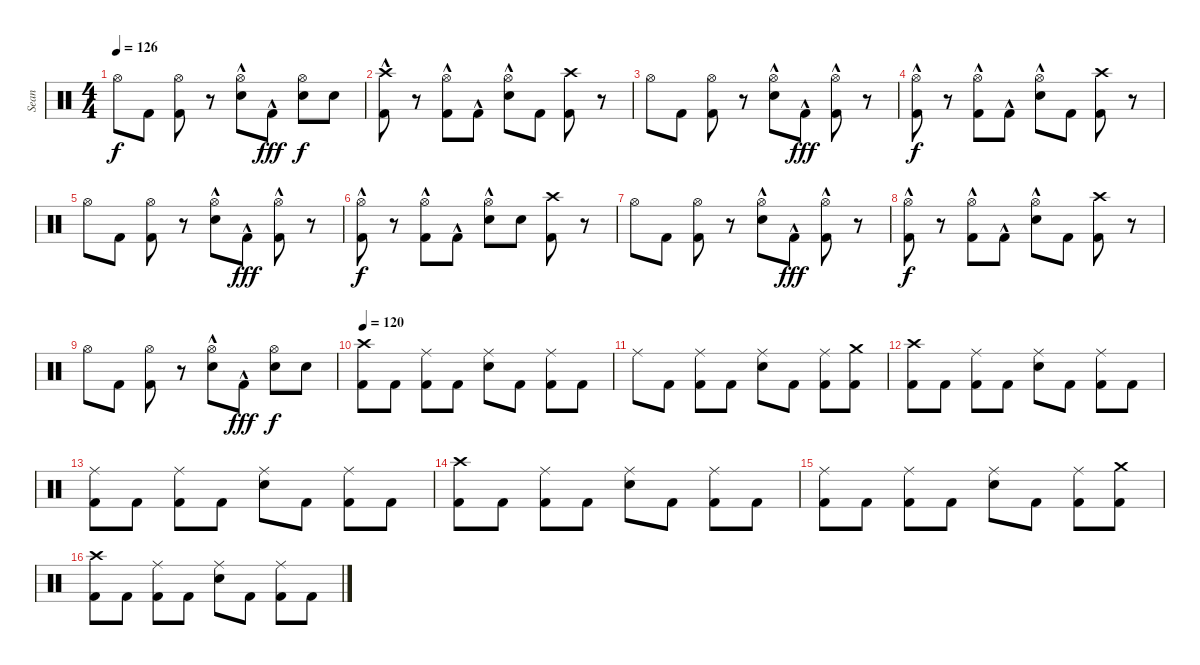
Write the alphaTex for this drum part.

\track ("Sean" "Sean") {instrument percussion}
\staff {score}
\articulation defaults
\ts (4 4)
\tempo 126
\clef neutral
\ks c "Hi-Hat (open)".8{dy f} "Kick (hit) 2".8
("Hi-Hat (open)" "Kick (hit) 2").8 r.8 ("Hi-Hat (open)" "Snare (hit) 2"{hac}).8 "Kick (hit) 2"{hac}.8{dy fff} ("Hi-Hat (open)" "Snare (hit) 2").8{dy f} "Snare (hit) 2".8 |
("Crash high (hit)" "Kick (hit) 2"{hac}).8 r.8 ("Hi-Hat (open)" "Kick (hit) 2"{hac}).8 "Kick (hit) 2"{hac}.8 ("Hi-Hat (open)" "Snare (hit) 2"{hac}).8 "Kick (hit) 2".8 ("Crash high (hit)" "Kick (hit) 2").8 r.8 |
"Hi-Hat (open)".8 "Kick (hit) 2".8 ("Hi-Hat (open)" "Kick (hit) 2").8 r.8 ("Hi-Hat (open)" "Snare (hit) 2"{hac}).8 "Kick (hit) 2"{hac}.8{dy fff} ("Hi-Hat (open)" "Kick (hit) 2"{hac}).8 r.8 |
("Hi-Hat (open)" "Kick (hit) 2"{hac}).8{dy f} r.8 ("Hi-Hat (open)" "Kick (hit) 2"{hac}).8 "Kick (hit) 2"{hac}.8 ("Hi-Hat (open)" "Snare (hit) 2"{hac}).8 "Kick (hit) 2".8 ("Crash high (hit)" "Kick (hit) 2").8 r.8 |
"Hi-Hat (open)".8 "Kick (hit) 2".8 ("Hi-Hat (open)" "Kick (hit) 2").8 r.8 ("Hi-Hat (open)" "Snare (hit) 2"{hac}).8 "Kick (hit) 2"{hac}.8{dy fff} ("Hi-Hat (open)" "Kick (hit) 2"{hac}).8 r.8 |
("Hi-Hat (open)" "Kick (hit) 2"{hac}).8{dy f} r.8 ("Hi-Hat (open)" "Kick (hit) 2"{hac}).8 "Kick (hit) 2"{hac}.8 ("Hi-Hat (open)" "Snare (hit) 2"{hac}).8 "Snare (hit) 2".8 ("Crash high (hit)" "Kick (hit) 2").8 r.8 |
"Hi-Hat (open)".8 "Kick (hit) 2".8 ("Hi-Hat (open)" "Kick (hit) 2").8 r.8 ("Hi-Hat (open)" "Snare (hit) 2"{hac}).8 "Kick (hit) 2"{hac}.8{dy fff} ("Hi-Hat (open)" "Kick (hit) 2"{hac}).8 r.8 |
("Hi-Hat (open)" "Kick (hit) 2"{hac}).8{dy f} r.8 ("Hi-Hat (open)" "Kick (hit) 2"{hac}).8 "Kick (hit) 2"{hac}.8 ("Hi-Hat (open)" "Snare (hit) 2"{hac}).8 "Kick (hit) 2".8 ("Crash high (hit)" "Kick (hit) 2").8 r.8 |
"Hi-Hat (open)".8 "Kick (hit) 2".8 ("Hi-Hat (open)" "Kick (hit) 2").8 r.8 ("Hi-Hat (open)" "Snare (hit) 2"{hac}).8 "Kick (hit) 2"{hac}.8{dy fff} ("Hi-Hat (open)" "Snare (hit) 2").8{dy f} "Snare (hit) 2".8 |
\tempo 120
("Crash high (hit)" "Kick (hit) 2").8 "Kick (hit) 2".8 ("Ride (middle)" "Kick (hit) 2").8 "Kick (hit) 2".8 ("Ride (middle)" "Snare (hit) 2").8 "Kick (hit) 2".8 ("Ride (middle)" "Kick (hit) 2").8 "Kick (hit) 2".8 |
"Ride (middle)".8 "Kick (hit) 2".8 ("Ride (middle)" "Kick (hit) 2").8 "Kick (hit) 2".8 ("Ride (middle)" "Snare (hit) 2").8 "Kick (hit) 2".8 ("Ride (middle)" "Kick (hit) 2").8 ("Crash medium (hit)" "Kick (hit) 2").8 |
("Crash high (hit)" "Kick (hit) 2").8 "Kick (hit) 2".8 ("Ride (middle)" "Kick (hit) 2").8 "Kick (hit) 2".8 ("Ride (middle)" "Snare (hit) 2").8 "Kick (hit) 2".8 ("Ride (middle)" "Kick (hit) 2").8 "Kick (hit) 2".8 |
("Ride (middle)" "Kick (hit) 2").8 "Kick (hit) 2".8 ("Ride (middle)" "Kick (hit) 2").8 "Kick (hit) 2".8 ("Ride (middle)" "Snare (hit) 2").8 "Kick (hit) 2".8 ("Ride (middle)" "Kick (hit) 2").8 "Kick (hit) 2".8 |
("Crash high (hit)" "Kick (hit) 2").8 "Kick (hit) 2".8 ("Ride (middle)" "Kick (hit) 2").8 "Kick (hit) 2".8 ("Ride (middle)" "Snare (hit) 2").8 "Kick (hit) 2".8 ("Ride (middle)" "Kick (hit) 2").8 "Kick (hit) 2".8 |
("Ride (middle)" "Kick (hit) 2").8 "Kick (hit) 2".8 ("Ride (middle)" "Kick (hit) 2").8 "Kick (hit) 2".8 ("Ride (middle)" "Snare (hit) 2").8 "Kick (hit) 2".8 ("Ride (middle)" "Kick (hit) 2").8 ("Crash medium (hit)" "Kick (hit) 2").8 |
("Crash high (hit)" "Kick (hit) 2").8 "Kick (hit) 2".8 ("Ride (middle)" "Kick (hit) 2").8 "Kick (hit) 2".8 ("Ride (middle)" "Snare (hit) 2").8 "Kick (hit) 2".8 ("Ride (middle)" "Kick (hit) 2").8 "Kick (hit) 2".8
